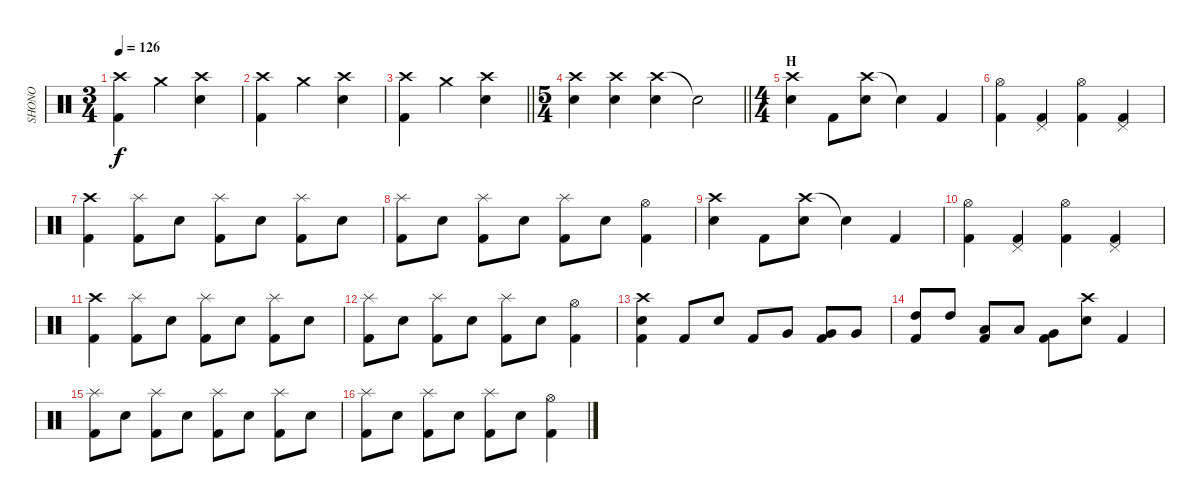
\track ("SHONO" "SHONO") {instrument percussion}
\staff {score}
\articulation defaults
\ts (3 4)
\tempo 126
\clef neutral
\ks c
("Crash high (hit)" "Kick (hit) 2").4{dy f} "Crash medium (hit)".4 ("Crash high (hit)" "Snare (hit) 2").4 |
("Crash high (hit)" "Kick (hit) 2").4 "Crash medium (hit)".4 ("Crash high (hit)" "Snare (hit) 2").4 |
\barLineRight lightlight
("Crash high (hit)" "Kick (hit) 2").4 "Crash medium (hit)".4 ("Crash high (hit)" "Snare (hit) 2").4 |
\ts (5 4)
\barLineRight lightlight
("Crash high (hit)" "Snare (hit) 2").4 ("Crash high (hit)" "Snare (hit) 2").4 ("Crash high (hit)" "Snare (hit) 2").4 "Snare (hit)"{t}.2 |
\ts (4 4)
\section ("" "H")
("Crash high (hit)" "Snare (hit) 2").4 "Kick (hit) 2".8 ("Crash high (hit)" "Snare (hit) 2").8 "Snare (hit)"{t}.4 "Kick (hit) 2".4 |
("Hi-Hat (open)" "Kick (hit) 2").4 ("Pedal Hi-Hat (hit)" "Kick (hit) 2").4 ("Hi-Hat (open)" "Kick (hit) 2").4 ("Pedal Hi-Hat (hit)" "Kick (hit) 2").4 |
("Crash high (hit)" "Kick (hit) 2").4 ("Splash (hit)" "Kick (hit) 2").8 "Snare (hit) 2".8 ("Splash (hit)" "Kick (hit) 2").8 "Snare (hit) 2".8 ("Splash (hit)" "Kick (hit) 2").8 "Snare (hit) 2".8 |
("Splash (hit)" "Kick (hit) 2").8 "Snare (hit) 2".8 ("Splash (hit)" "Kick (hit) 2").8 "Snare (hit) 2".8 ("Splash (hit)" "Kick (hit) 2").8 "Snare (hit) 2".8 ("Hi-Hat (open)" "Kick (hit) 2").4 |
("Crash high (hit)" "Snare (hit) 2").4 "Kick (hit) 2".8 ("Crash high (hit)" "Snare (hit) 2").8 "Snare (hit)"{t}.4 "Kick (hit) 2".4 |
("Hi-Hat (open)" "Kick (hit) 2").4 ("Pedal Hi-Hat (hit)" "Kick (hit) 2").4 ("Hi-Hat (open)" "Kick (hit) 2").4 ("Pedal Hi-Hat (hit)" "Kick (hit) 2").4 |
("Crash high (hit)" "Kick (hit) 2").4 ("Splash (hit)" "Kick (hit) 2").8 "Snare (hit) 2".8 ("Splash (hit)" "Kick (hit) 2").8 "Snare (hit) 2".8 ("Splash (hit)" "Kick (hit) 2").8 "Snare (hit) 2".8 |
("Splash (hit)" "Kick (hit) 2").8 "Snare (hit) 2".8 ("Splash (hit)" "Kick (hit) 2").8 "Snare (hit) 2".8 ("Splash (hit)" "Kick (hit) 2").8 "Snare (hit) 2".8 ("Hi-Hat (open)" "Kick (hit) 2").4 |
("Crash high (hit)" "Snare (hit) 2" "Kick (hit) 2").4 "Kick (hit) 2".8 "Snare (hit) 2".8 "Kick (hit) 2".8 "Very Low Tom (hit)".8 ("Kick (hit) 2" "Very Low Tom (hit)").8 "Very Low Tom (hit)".8 |
("High Tom (hit)" "Kick (hit) 2").8 "High Tom (hit)".8 ("Low Tom (hit)" "Kick (hit) 2").8 "Low Tom (hit)".8 ("Very Low Tom (hit)" "Kick (hit) 2").8 ("Crash high (hit)" "Snare (hit) 2").8 "Kick (hit) 2".4 |
("Splash (hit)" "Kick (hit) 2").8 "Snare (hit) 2".8 ("Splash (hit)" "Kick (hit) 2").8 "Snare (hit) 2".8 ("Splash (hit)" "Kick (hit) 2").8 "Snare (hit) 2".8 ("Splash (hit)" "Kick (hit) 2").8 "Snare (hit) 2".8 |
("Splash (hit)" "Kick (hit) 2").8 "Snare (hit) 2".8 ("Splash (hit)" "Kick (hit) 2").8 "Snare (hit) 2".8 ("Splash (hit)" "Kick (hit) 2").8 "Snare (hit) 2".8 ("Hi-Hat (open)" "Kick (hit) 2").4
